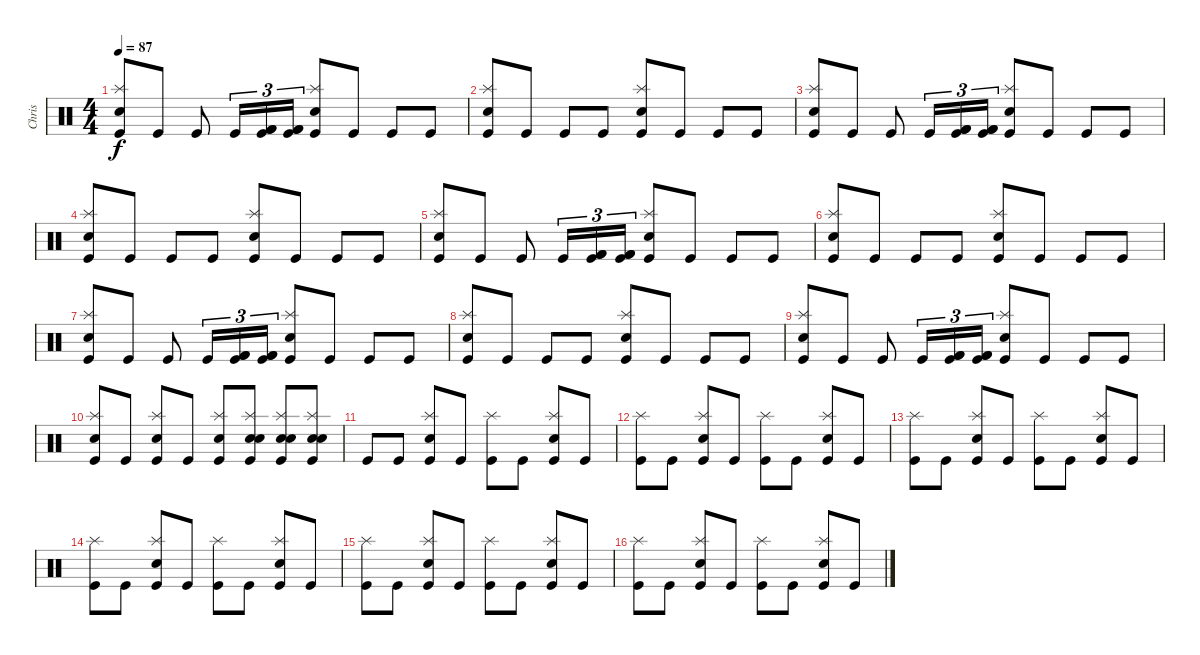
\track ("Chris" "Chris") {instrument percussion}
\staff {score}
\articulation defaults
\ts (4 4)
\tempo 87
\clef neutral
\ks c
("Kick (hit)" "Splash (hit)" "Snare (hit) 2").8{dy f} "Kick (hit)".8 "Kick (hit)".8 "Kick (hit)".16{tu (3 2)} ("Kick (hit)" "Kick (hit) 2" "Kick (hit) 2").16{tu (3 2)} ("Kick (hit)" "Kick (hit) 2" "Kick (hit) 2").16{tu (3 2)} ("Kick (hit)" "Splash (hit)" "Snare (hit) 2").8 "Kick (hit)".8 "Kick (hit)".8 "Kick (hit)".8 |
("Kick (hit)" "Splash (hit)" "Snare (hit) 2").8 "Kick (hit)".8 "Kick (hit)".8 "Kick (hit)".8 ("Kick (hit)" "Splash (hit)" "Snare (hit) 2").8 "Kick (hit)".8 "Kick (hit)".8 "Kick (hit)".8 |
("Kick (hit)" "Splash (hit)" "Snare (hit) 2").8 "Kick (hit)".8 "Kick (hit)".8 "Kick (hit)".16{tu (3 2)} ("Kick (hit)" "Kick (hit) 2" "Kick (hit) 2").16{tu (3 2)} ("Kick (hit)" "Kick (hit) 2" "Kick (hit) 2").16{tu (3 2)} ("Kick (hit)" "Splash (hit)" "Snare (hit) 2").8 "Kick (hit)".8 "Kick (hit)".8 "Kick (hit)".8 |
("Kick (hit)" "Splash (hit)" "Snare (hit) 2").8 "Kick (hit)".8 "Kick (hit)".8 "Kick (hit)".8 ("Kick (hit)" "Splash (hit)" "Snare (hit) 2").8 "Kick (hit)".8 "Kick (hit)".8 "Kick (hit)".8 |
("Kick (hit)" "Splash (hit)" "Snare (hit) 2").8 "Kick (hit)".8 "Kick (hit)".8 "Kick (hit)".16{tu (3 2)} ("Kick (hit)" "Kick (hit) 2" "Kick (hit) 2").16{tu (3 2)} ("Kick (hit)" "Kick (hit) 2" "Kick (hit) 2").16{tu (3 2)} ("Kick (hit)" "Splash (hit)" "Snare (hit) 2").8 "Kick (hit)".8 "Kick (hit)".8 "Kick (hit)".8 |
("Kick (hit)" "Splash (hit)" "Snare (hit) 2").8 "Kick (hit)".8 "Kick (hit)".8 "Kick (hit)".8 ("Kick (hit)" "Splash (hit)" "Snare (hit) 2").8 "Kick (hit)".8 "Kick (hit)".8 "Kick (hit)".8 |
("Kick (hit)" "Splash (hit)" "Snare (hit) 2").8 "Kick (hit)".8 "Kick (hit)".8 "Kick (hit)".16{tu (3 2)} ("Kick (hit)" "Kick (hit) 2" "Kick (hit) 2").16{tu (3 2)} ("Kick (hit)" "Kick (hit) 2" "Kick (hit) 2").16{tu (3 2)} ("Kick (hit)" "Splash (hit)" "Snare (hit) 2").8 "Kick (hit)".8 "Kick (hit)".8 "Kick (hit)".8 |
("Kick (hit)" "Splash (hit)" "Snare (hit) 2").8 "Kick (hit)".8 "Kick (hit)".8 "Kick (hit)".8 ("Kick (hit)" "Splash (hit)" "Snare (hit) 2").8 "Kick (hit)".8 "Kick (hit)".8 "Kick (hit)".8 |
("Kick (hit)" "Splash (hit)" "Snare (hit) 2").8 "Kick (hit)".8 "Kick (hit)".8 "Kick (hit)".16{tu (3 2)} ("Kick (hit)" "Kick (hit) 2" "Kick (hit) 2").16{tu (3 2)} ("Kick (hit)" "Kick (hit) 2" "Kick (hit) 2").16{tu (3 2)} ("Kick (hit)" "Splash (hit)" "Snare (hit) 2").8 "Kick (hit)".8 "Kick (hit)".8 "Kick (hit)".8 |
("Kick (hit)" "Splash (hit)" "Snare (hit) 2").8 "Kick (hit)".8 ("Kick (hit)" "Splash (hit)" "Snare (hit) 2").8 "Kick (hit)".8 ("Kick (hit)" "Splash (hit)" "Snare (hit) 2").8 ("Kick (hit)" "Splash (hit)" "Hand Clap (hit)" "Snare (hit) 2").8 ("Kick (hit)" "Splash (hit)" "Hand Clap (hit)" "Snare (hit) 2").8 ("Kick (hit)" "Splash (hit)" "Hand Clap (hit)" "Snare (hit) 2").8 |
"Kick (hit)".8 "Kick (hit)".8 ("Kick (hit)" "Splash (hit)" "Snare (hit) 2").8 "Kick (hit)".8 ("Kick (hit)" "Splash (hit)").8 "Kick (hit)".8 ("Kick (hit)" "Splash (hit)" "Snare (hit) 2").8 "Kick (hit)".8 |
("Kick (hit)" "Splash (hit)").8 "Kick (hit)".8 ("Kick (hit)" "Splash (hit)" "Snare (hit) 2").8 "Kick (hit)".8 ("Kick (hit)" "Splash (hit)").8 "Kick (hit)".8 ("Kick (hit)" "Splash (hit)" "Snare (hit) 2").8 "Kick (hit)".8 |
("Kick (hit)" "Splash (hit)").8 "Kick (hit)".8 ("Kick (hit)" "Splash (hit)" "Snare (hit) 2").8 "Kick (hit)".8 ("Kick (hit)" "Splash (hit)").8 "Kick (hit)".8 ("Kick (hit)" "Splash (hit)" "Snare (hit) 2").8 "Kick (hit)".8 |
("Kick (hit)" "Splash (hit)").8 "Kick (hit)".8 ("Kick (hit)" "Splash (hit)" "Snare (hit) 2").8 "Kick (hit)".8 ("Kick (hit)" "Splash (hit)").8 "Kick (hit)".8 ("Kick (hit)" "Splash (hit)" "Snare (hit) 2").8 "Kick (hit)".8 |
("Kick (hit)" "Splash (hit)").8 "Kick (hit)".8 ("Kick (hit)" "Splash (hit)" "Snare (hit) 2").8 "Kick (hit)".8 ("Kick (hit)" "Splash (hit)").8 "Kick (hit)".8 ("Kick (hit)" "Splash (hit)" "Snare (hit) 2").8 "Kick (hit)".8 |
("Kick (hit)" "Splash (hit)").8 "Kick (hit)".8 ("Kick (hit)" "Splash (hit)" "Snare (hit) 2").8 "Kick (hit)".8 ("Kick (hit)" "Splash (hit)").8 "Kick (hit)".8 ("Kick (hit)" "Splash (hit)" "Snare (hit) 2").8 "Kick (hit)".8
